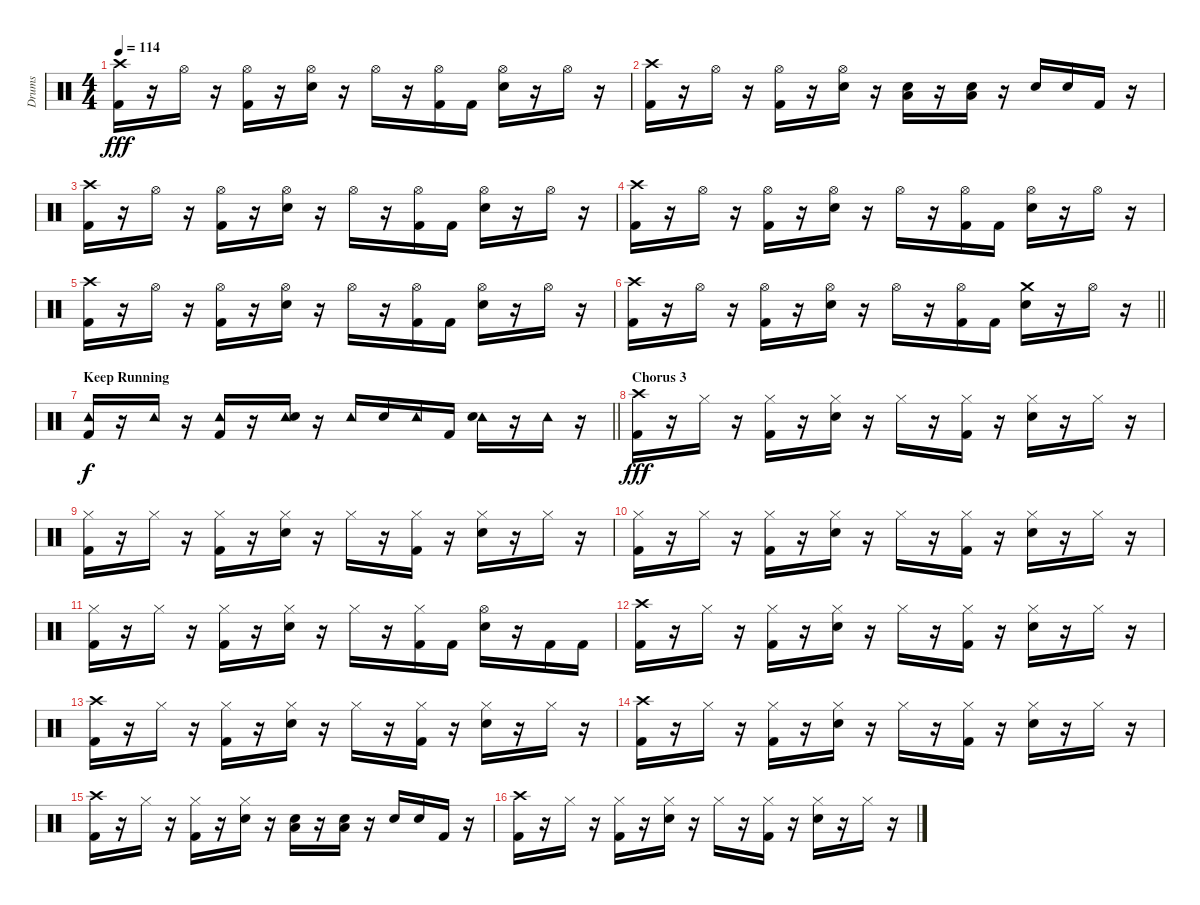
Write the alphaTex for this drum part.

\track ("Drums" "Drums") {instrument percussion bank 127}
\staff {score}
\articulation defaults
\ts (4 4)
\tempo 114
\clef neutral
\ks c
("Crash high (hit)" "Kick (hit) 2").16{dy fff} r.16 "Hi-Hat (open)".16 r.16 ("Hi-Hat (open)" "Kick (hit) 2").16 r.16 ("Hi-Hat (open)" "Electric Snare (hit)").16 r.16 "Hi-Hat (open)".16 r.16 ("Hi-Hat (open)" "Kick (hit) 2").16 "Kick (hit) 2".16 ("Hi-Hat (open)" "Electric Snare (hit)").16 r.16 "Hi-Hat (open)".16 r.16 |
("Crash high (hit)" "Kick (hit) 2").16 r.16 "Hi-Hat (open)".16 r.16 ("Hi-Hat (open)" "Kick (hit) 2").16 r.16 ("Hi-Hat (open)" "Electric Snare (hit)").16 r.16 ("Low Floor Tom (hit)" "Electric Snare (hit)").16 r.16 ("Low Floor Tom (hit)" "Electric Snare (hit)").16 r.16 "Electric Snare (hit)".16 "Electric Snare (hit)".16 "Kick (hit) 2".16 r.16 |
("Crash high (hit)" "Kick (hit) 2").16 r.16 "Hi-Hat (open)".16 r.16 ("Hi-Hat (open)" "Kick (hit) 2").16 r.16 ("Hi-Hat (open)" "Electric Snare (hit)").16 r.16 "Hi-Hat (open)".16 r.16 ("Hi-Hat (open)" "Kick (hit) 2").16 "Kick (hit) 2".16 ("Hi-Hat (open)" "Electric Snare (hit)").16 r.16 "Hi-Hat (open)".16 r.16 |
("Crash high (hit)" "Kick (hit) 2").16 r.16 "Hi-Hat (open)".16 r.16 ("Hi-Hat (open)" "Kick (hit) 2").16 r.16 ("Hi-Hat (open)" "Electric Snare (hit)").16 r.16 "Hi-Hat (open)".16 r.16 ("Hi-Hat (open)" "Kick (hit) 2").16 "Kick (hit) 2".16 ("Hi-Hat (open)" "Electric Snare (hit)").16 r.16 "Hi-Hat (open)".16 r.16 |
("Crash high (hit)" "Kick (hit) 2").16 r.16 "Hi-Hat (open)".16 r.16 ("Hi-Hat (open)" "Kick (hit) 2").16 r.16 ("Hi-Hat (open)" "Electric Snare (hit)").16 r.16 "Hi-Hat (open)".16 r.16 ("Hi-Hat (open)" "Kick (hit) 2").16 "Kick (hit) 2".16 ("Hi-Hat (open)" "Electric Snare (hit)").16 r.16 "Hi-Hat (open)".16 r.16 |
\barLineRight lightlight
("Crash high (hit)" "Kick (hit) 2").16 r.16 "Hi-Hat (open)".16 r.16 ("Hi-Hat (open)" "Kick (hit) 2").16 r.16 ("Hi-Hat (open)" "Electric Snare (hit)").16 r.16 "Hi-Hat (open)".16 r.16 ("Hi-Hat (open)" "Kick (hit) 2").16 "Kick (hit) 2".16 ("Crash medium (hit)" "Electric Snare (hit)").16 r.16 "Hi-Hat (open)".16 r.16 |
\section ("" "Keep Running")
\barLineRight lightlight
("Tambourine (hit)" "Kick (hit) 2").16{dy f} r.16 "Tambourine (hit)".16 r.16 ("Tambourine (hit)" "Kick (hit) 2").16 r.16 ("Tambourine (hit)" "Electric Snare (hit)").16 r.16 "Tambourine (hit)".16 "Electric Snare (hit)".16 "Tambourine (hit)".16 "Kick (hit) 2".16 ("Tambourine (hit)" "Electric Snare (hit)").16 r.16 "Tambourine (hit)".16 r.16 |
\section ("" "Chorus 3")
("Crash high (hit)" "Kick (hit) 2").16{dy fff} r.16 "Hi-Hat (closed)".16 r.16 ("Hi-Hat (closed)" "Kick (hit) 2").16 r.16 ("Hi-Hat (closed)" "Electric Snare (hit)").16 r.16 "Hi-Hat (closed)".16 r.16 ("Hi-Hat (closed)" "Kick (hit) 2").16 r.16 ("Hi-Hat (closed)" "Electric Snare (hit)").16 r.16 "Hi-Hat (closed)".16 r.16 |
("Hi-Hat (closed)" "Kick (hit) 2").16 r.16 "Hi-Hat (closed)".16 r.16 ("Hi-Hat (closed)" "Kick (hit) 2").16 r.16 ("Hi-Hat (closed)" "Electric Snare (hit)").16 r.16 "Hi-Hat (closed)".16 r.16 ("Hi-Hat (closed)" "Kick (hit) 2").16 r.16 ("Hi-Hat (closed)" "Electric Snare (hit)").16 r.16 "Hi-Hat (closed)".16 r.16 |
("Hi-Hat (closed)" "Kick (hit) 2").16 r.16 "Hi-Hat (closed)".16 r.16 ("Hi-Hat (closed)" "Kick (hit) 2").16 r.16 ("Hi-Hat (closed)" "Electric Snare (hit)").16 r.16 "Hi-Hat (closed)".16 r.16 ("Hi-Hat (closed)" "Kick (hit) 2").16 r.16 ("Hi-Hat (closed)" "Electric Snare (hit)").16 r.16 "Hi-Hat (closed)".16 r.16 |
("Hi-Hat (closed)" "Kick (hit) 2").16 r.16 "Hi-Hat (closed)".16 r.16 ("Hi-Hat (closed)" "Kick (hit) 2").16 r.16 ("Hi-Hat (closed)" "Electric Snare (hit)").16 r.16 "Hi-Hat (closed)".16 r.16 ("Hi-Hat (closed)" "Kick (hit) 2").16 "Kick (hit) 2".16 ("Hi-Hat (open)" "Electric Snare (hit)").16 r.16 "Kick (hit) 2".16 "Kick (hit) 2".16 |
("Crash high (hit)" "Kick (hit) 2").16 r.16 "Hi-Hat (closed)".16 r.16 ("Hi-Hat (closed)" "Kick (hit) 2").16 r.16 ("Hi-Hat (closed)" "Electric Snare (hit)").16 r.16 "Hi-Hat (closed)".16 r.16 ("Hi-Hat (closed)" "Kick (hit) 2").16 r.16 ("Hi-Hat (closed)" "Electric Snare (hit)").16 r.16 "Hi-Hat (closed)".16 r.16 |
("Crash high (hit)" "Kick (hit) 2").16 r.16 "Hi-Hat (closed)".16 r.16 ("Hi-Hat (closed)" "Kick (hit) 2").16 r.16 ("Hi-Hat (closed)" "Electric Snare (hit)").16 r.16 "Hi-Hat (closed)".16 r.16 ("Hi-Hat (closed)" "Kick (hit) 2").16 r.16 ("Hi-Hat (closed)" "Electric Snare (hit)").16 r.16 "Hi-Hat (closed)".16 r.16 |
("Crash high (hit)" "Kick (hit) 2").16 r.16 "Hi-Hat (closed)".16 r.16 ("Hi-Hat (closed)" "Kick (hit) 2").16 r.16 ("Hi-Hat (closed)" "Electric Snare (hit)").16 r.16 "Hi-Hat (closed)".16 r.16 ("Hi-Hat (closed)" "Kick (hit) 2").16 r.16 ("Hi-Hat (closed)" "Electric Snare (hit)").16 r.16 "Hi-Hat (closed)".16 r.16 |
("Crash high (hit)" "Kick (hit) 2").16 r.16 "Hi-Hat (closed)".16 r.16 ("Hi-Hat (closed)" "Kick (hit) 2").16 r.16 ("Hi-Hat (closed)" "Electric Snare (hit)").16 r.16 ("Low Floor Tom (hit)" "Electric Snare (hit)").16 r.16 ("Low Floor Tom (hit)" "Electric Snare (hit)").16 r.16 "Electric Snare (hit)".16 "Electric Snare (hit)".16 "Kick (hit) 2".16 r.16 |
("Crash high (hit)" "Kick (hit) 2").16 r.16 "Hi-Hat (closed)".16 r.16 ("Hi-Hat (closed)" "Kick (hit) 2").16 r.16 ("Hi-Hat (closed)" "Electric Snare (hit)").16 r.16 "Hi-Hat (closed)".16 r.16 ("Hi-Hat (closed)" "Kick (hit) 2").16 r.16 ("Hi-Hat (closed)" "Electric Snare (hit)").16 r.16 "Hi-Hat (closed)".16 r.16
